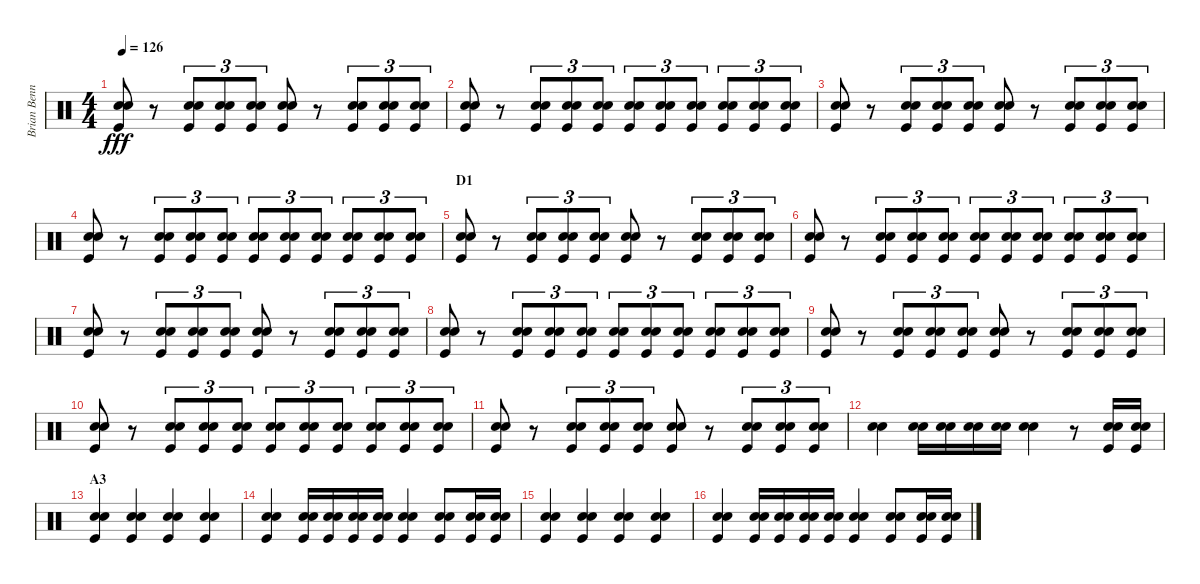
\track ("Brian Bennett" "Brian Benn") {instrument percussion}
\staff {score}
\articulation defaults
\ts (4 4)
\tempo 126
\clef neutral
\ks c
("Electric Snare (hit)" "Snare (hit) 2" "Kick (hit)").8{dy fff} r.8 ("Electric Snare (hit)" "Snare (hit) 2" "Kick (hit)").8{tu (3 2)} ("Electric Snare (hit)" "Snare (hit) 2" "Kick (hit)").8{tu (3 2)} ("Electric Snare (hit)" "Snare (hit) 2" "Kick (hit)").8{tu (3 2)} ("Electric Snare (hit)" "Snare (hit) 2" "Kick (hit)").8 r.8 ("Electric Snare (hit)" "Snare (hit) 2" "Kick (hit)").8{tu (3 2)} ("Electric Snare (hit)" "Snare (hit) 2" "Kick (hit)").8{tu (3 2)} ("Electric Snare (hit)" "Snare (hit) 2" "Kick (hit)").8{tu (3 2)} |
("Electric Snare (hit)" "Snare (hit) 2" "Kick (hit)").8 r.8 ("Electric Snare (hit)" "Snare (hit) 2" "Kick (hit)").8{tu (3 2)} ("Electric Snare (hit)" "Snare (hit) 2" "Kick (hit)").8{tu (3 2)} ("Electric Snare (hit)" "Snare (hit) 2" "Kick (hit)").8{tu (3 2)} ("Electric Snare (hit)" "Snare (hit) 2" "Kick (hit)").8{tu (3 2)} ("Electric Snare (hit)" "Snare (hit) 2" "Kick (hit)").8{tu (3 2)} ("Electric Snare (hit)" "Snare (hit) 2" "Kick (hit)").8{tu (3 2)} ("Electric Snare (hit)" "Snare (hit) 2" "Kick (hit)").8{tu (3 2)} ("Electric Snare (hit)" "Snare (hit) 2" "Kick (hit)").8{tu (3 2)} ("Electric Snare (hit)" "Snare (hit) 2" "Kick (hit)").8{tu (3 2)} |
("Electric Snare (hit)" "Snare (hit) 2" "Kick (hit)").8 r.8 ("Electric Snare (hit)" "Snare (hit) 2" "Kick (hit)").8{tu (3 2)} ("Electric Snare (hit)" "Snare (hit) 2" "Kick (hit)").8{tu (3 2)} ("Electric Snare (hit)" "Snare (hit) 2" "Kick (hit)").8{tu (3 2)} ("Electric Snare (hit)" "Snare (hit) 2" "Kick (hit)").8 r.8 ("Electric Snare (hit)" "Snare (hit) 2" "Kick (hit)").8{tu (3 2)} ("Electric Snare (hit)" "Snare (hit) 2" "Kick (hit)").8{tu (3 2)} ("Electric Snare (hit)" "Snare (hit) 2" "Kick (hit)").8{tu (3 2)} |
("Electric Snare (hit)" "Snare (hit) 2" "Kick (hit)").8 r.8 ("Electric Snare (hit)" "Snare (hit) 2" "Kick (hit)").8{tu (3 2)} ("Electric Snare (hit)" "Snare (hit) 2" "Kick (hit)").8{tu (3 2)} ("Electric Snare (hit)" "Snare (hit) 2" "Kick (hit)").8{tu (3 2)} ("Electric Snare (hit)" "Snare (hit) 2" "Kick (hit)").8{tu (3 2)} ("Electric Snare (hit)" "Snare (hit) 2" "Kick (hit)").8{tu (3 2)} ("Electric Snare (hit)" "Snare (hit) 2" "Kick (hit)").8{tu (3 2)} ("Electric Snare (hit)" "Snare (hit) 2" "Kick (hit)").8{tu (3 2)} ("Electric Snare (hit)" "Snare (hit) 2" "Kick (hit)").8{tu (3 2)} ("Electric Snare (hit)" "Snare (hit) 2" "Kick (hit)").8{tu (3 2)} |
\section ("" "D1")
("Electric Snare (hit)" "Snare (hit) 2" "Kick (hit)").8 r.8 ("Electric Snare (hit)" "Snare (hit) 2" "Kick (hit)").8{tu (3 2)} ("Electric Snare (hit)" "Snare (hit) 2" "Kick (hit)").8{tu (3 2)} ("Electric Snare (hit)" "Snare (hit) 2" "Kick (hit)").8{tu (3 2)} ("Electric Snare (hit)" "Snare (hit) 2" "Kick (hit)").8 r.8 ("Electric Snare (hit)" "Snare (hit) 2" "Kick (hit)").8{tu (3 2)} ("Electric Snare (hit)" "Snare (hit) 2" "Kick (hit)").8{tu (3 2)} ("Electric Snare (hit)" "Snare (hit) 2" "Kick (hit)").8{tu (3 2)} |
("Electric Snare (hit)" "Snare (hit) 2" "Kick (hit)").8 r.8 ("Electric Snare (hit)" "Snare (hit) 2" "Kick (hit)").8{tu (3 2)} ("Electric Snare (hit)" "Snare (hit) 2" "Kick (hit)").8{tu (3 2)} ("Electric Snare (hit)" "Snare (hit) 2" "Kick (hit)").8{tu (3 2)} ("Electric Snare (hit)" "Snare (hit) 2" "Kick (hit)").8{tu (3 2)} ("Electric Snare (hit)" "Snare (hit) 2" "Kick (hit)").8{tu (3 2)} ("Electric Snare (hit)" "Snare (hit) 2" "Kick (hit)").8{tu (3 2)} ("Electric Snare (hit)" "Snare (hit) 2" "Kick (hit)").8{tu (3 2)} ("Electric Snare (hit)" "Snare (hit) 2" "Kick (hit)").8{tu (3 2)} ("Electric Snare (hit)" "Snare (hit) 2" "Kick (hit)").8{tu (3 2)} |
("Electric Snare (hit)" "Snare (hit) 2" "Kick (hit)").8 r.8 ("Electric Snare (hit)" "Snare (hit) 2" "Kick (hit)").8{tu (3 2)} ("Electric Snare (hit)" "Snare (hit) 2" "Kick (hit)").8{tu (3 2)} ("Electric Snare (hit)" "Snare (hit) 2" "Kick (hit)").8{tu (3 2)} ("Electric Snare (hit)" "Snare (hit) 2" "Kick (hit)").8 r.8 ("Electric Snare (hit)" "Snare (hit) 2" "Kick (hit)").8{tu (3 2)} ("Electric Snare (hit)" "Snare (hit) 2" "Kick (hit)").8{tu (3 2)} ("Electric Snare (hit)" "Snare (hit) 2" "Kick (hit)").8{tu (3 2)} |
("Electric Snare (hit)" "Snare (hit) 2" "Kick (hit)").8 r.8 ("Electric Snare (hit)" "Snare (hit) 2" "Kick (hit)").8{tu (3 2)} ("Electric Snare (hit)" "Snare (hit) 2" "Kick (hit)").8{tu (3 2)} ("Electric Snare (hit)" "Snare (hit) 2" "Kick (hit)").8{tu (3 2)} ("Electric Snare (hit)" "Snare (hit) 2" "Kick (hit)").8{tu (3 2)} ("Electric Snare (hit)" "Snare (hit) 2" "Kick (hit)").8{tu (3 2)} ("Electric Snare (hit)" "Snare (hit) 2" "Kick (hit)").8{tu (3 2)} ("Electric Snare (hit)" "Snare (hit) 2" "Kick (hit)").8{tu (3 2)} ("Electric Snare (hit)" "Snare (hit) 2" "Kick (hit)").8{tu (3 2)} ("Electric Snare (hit)" "Snare (hit) 2" "Kick (hit)").8{tu (3 2)} |
("Electric Snare (hit)" "Snare (hit) 2" "Kick (hit)").8 r.8 ("Electric Snare (hit)" "Snare (hit) 2" "Kick (hit)").8{tu (3 2)} ("Electric Snare (hit)" "Snare (hit) 2" "Kick (hit)").8{tu (3 2)} ("Electric Snare (hit)" "Snare (hit) 2" "Kick (hit)").8{tu (3 2)} ("Electric Snare (hit)" "Snare (hit) 2" "Kick (hit)").8 r.8 ("Electric Snare (hit)" "Snare (hit) 2" "Kick (hit)").8{tu (3 2)} ("Electric Snare (hit)" "Snare (hit) 2" "Kick (hit)").8{tu (3 2)} ("Electric Snare (hit)" "Snare (hit) 2" "Kick (hit)").8{tu (3 2)} |
("Electric Snare (hit)" "Snare (hit) 2" "Kick (hit)").8 r.8 ("Electric Snare (hit)" "Snare (hit) 2" "Kick (hit)").8{tu (3 2)} ("Electric Snare (hit)" "Snare (hit) 2" "Kick (hit)").8{tu (3 2)} ("Electric Snare (hit)" "Snare (hit) 2" "Kick (hit)").8{tu (3 2)} ("Electric Snare (hit)" "Snare (hit) 2" "Kick (hit)").8{tu (3 2)} ("Electric Snare (hit)" "Snare (hit) 2" "Kick (hit)").8{tu (3 2)} ("Electric Snare (hit)" "Snare (hit) 2" "Kick (hit)").8{tu (3 2)} ("Electric Snare (hit)" "Snare (hit) 2" "Kick (hit)").8{tu (3 2)} ("Electric Snare (hit)" "Snare (hit) 2" "Kick (hit)").8{tu (3 2)} ("Electric Snare (hit)" "Snare (hit) 2" "Kick (hit)").8{tu (3 2)} |
("Electric Snare (hit)" "Snare (hit) 2" "Kick (hit)").8 r.8 ("Electric Snare (hit)" "Snare (hit) 2" "Kick (hit)").8{tu (3 2)} ("Electric Snare (hit)" "Snare (hit) 2" "Kick (hit)").8{tu (3 2)} ("Electric Snare (hit)" "Snare (hit) 2" "Kick (hit)").8{tu (3 2)} ("Electric Snare (hit)" "Snare (hit) 2" "Kick (hit)").8 r.8 ("Electric Snare (hit)" "Snare (hit) 2" "Kick (hit)").8{tu (3 2)} ("Electric Snare (hit)" "Snare (hit) 2" "Kick (hit)").8{tu (3 2)} ("Electric Snare (hit)" "Snare (hit) 2" "Kick (hit)").8{tu (3 2)} |
("Electric Snare (hit)" "Snare (hit) 2").4 ("Electric Snare (hit)" "Snare (hit) 2").16 ("Electric Snare (hit)" "Snare (hit) 2").16 ("Electric Snare (hit)" "Snare (hit) 2").16 ("Electric Snare (hit)" "Snare (hit) 2").16 ("Electric Snare (hit)" "Snare (hit) 2").4 r.8 ("Electric Snare (hit)" "Snare (hit) 2" "Kick (hit)").16 ("Electric Snare (hit)" "Snare (hit) 2" "Kick (hit)").16 |
\section ("" "A3")
("Electric Snare (hit)" "Snare (hit) 2" "Kick (hit)").4 ("Electric Snare (hit)" "Snare (hit) 2" "Kick (hit)").4 ("Electric Snare (hit)" "Snare (hit) 2" "Kick (hit)").4 ("Electric Snare (hit)" "Snare (hit) 2" "Kick (hit)").4 |
("Electric Snare (hit)" "Snare (hit) 2" "Kick (hit)").4 ("Electric Snare (hit)" "Snare (hit) 2" "Kick (hit)").16 ("Electric Snare (hit)" "Snare (hit) 2" "Kick (hit)").16 ("Electric Snare (hit)" "Snare (hit) 2" "Kick (hit)").16 ("Electric Snare (hit)" "Snare (hit) 2" "Kick (hit)").16 ("Electric Snare (hit)" "Snare (hit) 2" "Kick (hit)").4 ("Electric Snare (hit)" "Snare (hit) 2" "Kick (hit)").8 ("Electric Snare (hit)" "Snare (hit) 2" "Kick (hit)").16 ("Electric Snare (hit)" "Snare (hit) 2" "Kick (hit)").16 |
("Electric Snare (hit)" "Snare (hit) 2" "Kick (hit)").4 ("Electric Snare (hit)" "Snare (hit) 2" "Kick (hit)").4 ("Electric Snare (hit)" "Snare (hit) 2" "Kick (hit)").4 ("Electric Snare (hit)" "Snare (hit) 2" "Kick (hit)").4 |
("Electric Snare (hit)" "Snare (hit) 2" "Kick (hit)").4 ("Electric Snare (hit)" "Snare (hit) 2" "Kick (hit)").16 ("Electric Snare (hit)" "Snare (hit) 2" "Kick (hit)").16 ("Electric Snare (hit)" "Snare (hit) 2" "Kick (hit)").16 ("Electric Snare (hit)" "Snare (hit) 2" "Kick (hit)").16 ("Electric Snare (hit)" "Snare (hit) 2" "Kick (hit)").4 ("Electric Snare (hit)" "Snare (hit) 2" "Kick (hit)").8 ("Electric Snare (hit)" "Snare (hit) 2" "Kick (hit)").16 ("Electric Snare (hit)" "Snare (hit) 2" "Kick (hit)").16
